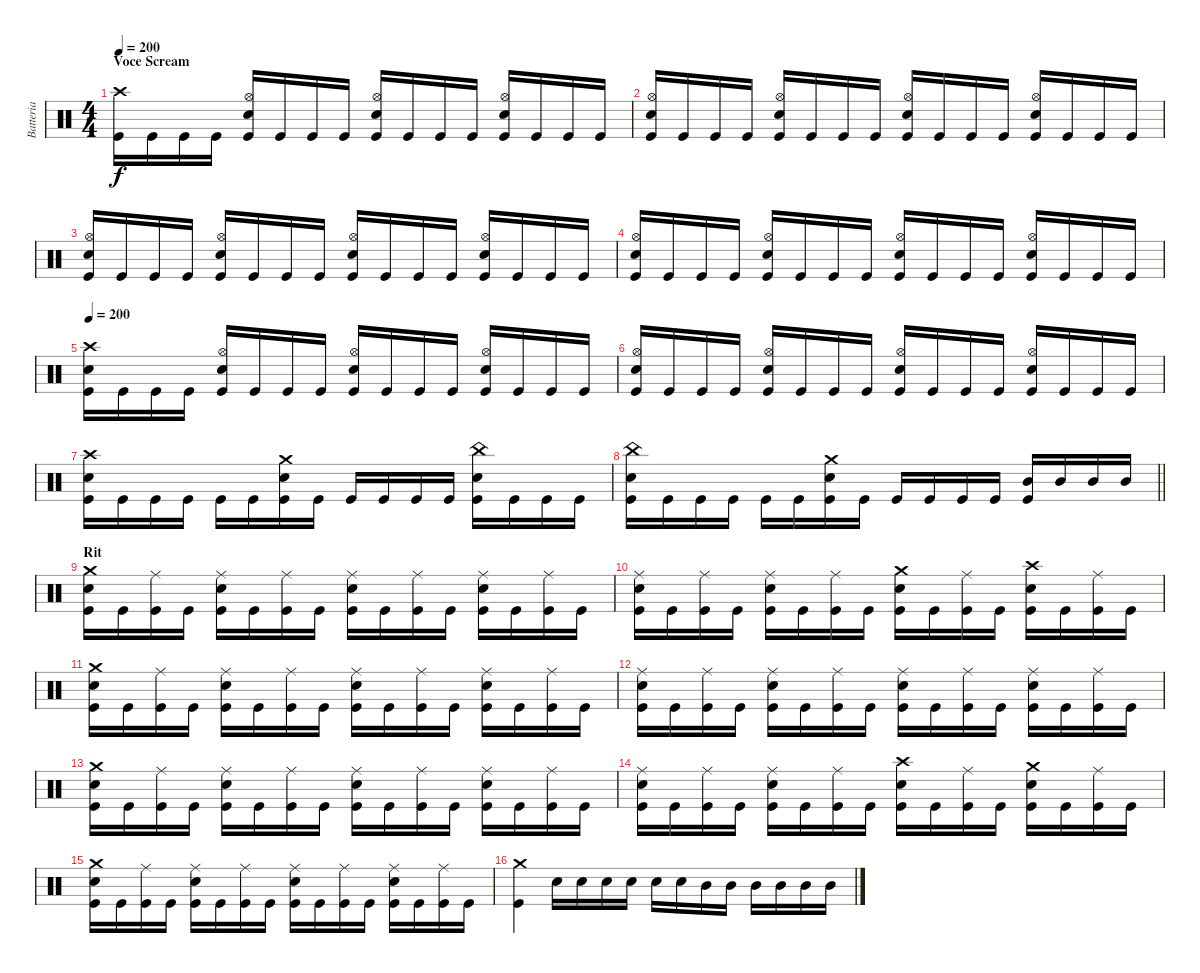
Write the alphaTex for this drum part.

\track ("Batteria" "Batteria") {instrument percussion}
\staff {score}
\articulation defaults
\ts (4 4)
\section ("" "Voce Scream")
\tempo 200
\clef neutral
\ks c
("Crash high (hit)" "Kick (hit)").16{dy f} "Kick (hit)".16 "Kick (hit)".16 "Kick (hit)".16 ("Hi-Hat (open)" "Electric Snare (hit)" "Kick (hit)").16 "Kick (hit)".16 "Kick (hit)".16 "Kick (hit)".16 ("Hi-Hat (open)" "Electric Snare (hit)" "Kick (hit)").16 "Kick (hit)".16 "Kick (hit)".16 "Kick (hit)".16 ("Hi-Hat (open)" "Electric Snare (hit)" "Kick (hit)").16 "Kick (hit)".16 "Kick (hit)".16 "Kick (hit)".16 |
("Hi-Hat (open)" "Electric Snare (hit)" "Kick (hit)").16 "Kick (hit)".16 "Kick (hit)".16 "Kick (hit)".16 ("Hi-Hat (open)" "Electric Snare (hit)" "Kick (hit)").16 "Kick (hit)".16 "Kick (hit)".16 "Kick (hit)".16 ("Hi-Hat (open)" "Electric Snare (hit)" "Kick (hit)").16 "Kick (hit)".16 "Kick (hit)".16 "Kick (hit)".16 ("Hi-Hat (open)" "Electric Snare (hit)" "Kick (hit)").16 "Kick (hit)".16 "Kick (hit)".16 "Kick (hit)".16 |
("Hi-Hat (open)" "Electric Snare (hit)" "Kick (hit)").16 "Kick (hit)".16 "Kick (hit)".16 "Kick (hit)".16 ("Hi-Hat (open)" "Electric Snare (hit)" "Kick (hit)").16 "Kick (hit)".16 "Kick (hit)".16 "Kick (hit)".16 ("Hi-Hat (open)" "Electric Snare (hit)" "Kick (hit)").16 "Kick (hit)".16 "Kick (hit)".16 "Kick (hit)".16 ("Hi-Hat (open)" "Electric Snare (hit)" "Kick (hit)").16 "Kick (hit)".16 "Kick (hit)".16 "Kick (hit)".16 |
("Hi-Hat (open)" "Electric Snare (hit)" "Kick (hit)").16 "Kick (hit)".16 "Kick (hit)".16 "Kick (hit)".16 ("Hi-Hat (open)" "Electric Snare (hit)" "Kick (hit)").16 "Kick (hit)".16 "Kick (hit)".16 "Kick (hit)".16 ("Hi-Hat (open)" "Electric Snare (hit)" "Kick (hit)").16 "Kick (hit)".16 "Kick (hit)".16 "Kick (hit)".16 ("Hi-Hat (open)" "Electric Snare (hit)" "Kick (hit)").16 "Kick (hit)".16 "Kick (hit)".16 "Kick (hit)".16 |
\tempo 200
("Crash high (hit)" "Electric Snare (hit)" "Kick (hit)").16 "Kick (hit)".16 "Kick (hit)".16 "Kick (hit)".16 ("Hi-Hat (open)" "Electric Snare (hit)" "Kick (hit)").16 "Kick (hit)".16 "Kick (hit)".16 "Kick (hit)".16 ("Hi-Hat (open)" "Electric Snare (hit)" "Kick (hit)").16 "Kick (hit)".16 "Kick (hit)".16 "Kick (hit)".16 ("Hi-Hat (open)" "Electric Snare (hit)" "Kick (hit)").16 "Kick (hit)".16 "Kick (hit)".16 "Kick (hit)".16 |
("Hi-Hat (open)" "Electric Snare (hit)" "Kick (hit)").16 "Kick (hit)".16 "Kick (hit)".16 "Kick (hit)".16 ("Hi-Hat (open)" "Electric Snare (hit)" "Kick (hit)").16 "Kick (hit)".16 "Kick (hit)".16 "Kick (hit)".16 ("Hi-Hat (open)" "Electric Snare (hit)" "Kick (hit)").16 "Kick (hit)".16 "Kick (hit)".16 "Kick (hit)".16 ("Hi-Hat (open)" "Electric Snare (hit)" "Kick (hit)").16 "Kick (hit)".16 "Kick (hit)".16 "Kick (hit)".16 |
("Crash high (hit)" "Electric Snare (hit)" "Kick (hit)").16 "Kick (hit)".16 "Kick (hit)".16 "Kick (hit)".16 "Kick (hit)".16 "Kick (hit)".16 ("Crash medium (hit)" "Electric Snare (hit)" "Kick (hit)").16 "Kick (hit)".16 "Kick (hit)".16 "Kick (hit)".16 "Kick (hit)".16 "Kick (hit)".16 ("China (hit)" "Electric Snare (hit)" "Kick (hit)").16 "Kick (hit)".16 "Kick (hit)".16 "Kick (hit)".16 |
\barLineRight lightlight
("China (hit)" "Electric Snare (hit)" "Kick (hit)").16 "Kick (hit)".16 "Kick (hit)".16 "Kick (hit)".16 "Kick (hit)".16 "Kick (hit)".16 ("Crash medium (hit)" "Electric Snare (hit)" "Kick (hit)").16 "Kick (hit)".16 "Kick (hit)".16 "Kick (hit)".16 "Kick (hit)".16 "Kick (hit)".16 ("Mid Tom (hit)" "Kick (hit)").16 "Mid Tom (hit)".16 "Mid Tom (hit)".16 "Mid Tom (hit)".16 |
\section ("" "Rit")
("Crash medium (hit)" "Electric Snare (hit)" "Kick (hit)").16 "Kick (hit)".16 ("Ride (middle)" "Kick (hit)").16 "Kick (hit)".16 ("Ride (middle)" "Electric Snare (hit)" "Kick (hit)").16 "Kick (hit)".16 ("Ride (middle)" "Kick (hit)").16 "Kick (hit)".16 ("Ride (middle)" "Electric Snare (hit)" "Kick (hit)").16 "Kick (hit)".16 ("Ride (middle)" "Kick (hit)").16 "Kick (hit)".16 ("Ride (middle)" "Electric Snare (hit)" "Kick (hit)").16 "Kick (hit)".16 ("Ride (middle)" "Kick (hit)").16 "Kick (hit)".16 |
("Ride (middle)" "Electric Snare (hit)" "Kick (hit)").16 "Kick (hit)".16 ("Ride (middle)" "Kick (hit)").16 "Kick (hit)".16 ("Ride (middle)" "Electric Snare (hit)" "Kick (hit)").16 "Kick (hit)".16 ("Ride (middle)" "Kick (hit)").16 "Kick (hit)".16 ("Crash medium (hit)" "Electric Snare (hit)" "Kick (hit)").16 "Kick (hit)".16 ("Ride (middle)" "Kick (hit)").16 "Kick (hit)".16 ("Crash high (hit)" "Electric Snare (hit)" "Kick (hit)").16 "Kick (hit)".16 ("Ride (middle)" "Kick (hit)").16 "Kick (hit)".16 |
("Crash medium (hit)" "Electric Snare (hit)" "Kick (hit)").16 "Kick (hit)".16 ("Ride (middle)" "Kick (hit)").16 "Kick (hit)".16 ("Ride (middle)" "Electric Snare (hit)" "Kick (hit)").16 "Kick (hit)".16 ("Ride (middle)" "Kick (hit)").16 "Kick (hit)".16 ("Ride (middle)" "Electric Snare (hit)" "Kick (hit)").16 "Kick (hit)".16 ("Ride (middle)" "Kick (hit)").16 "Kick (hit)".16 ("Ride (middle)" "Electric Snare (hit)" "Kick (hit)").16 "Kick (hit)".16 ("Ride (middle)" "Kick (hit)").16 "Kick (hit)".16 |
("Ride (middle)" "Electric Snare (hit)" "Kick (hit)").16 "Kick (hit)".16 ("Ride (middle)" "Kick (hit)").16 "Kick (hit)".16 ("Ride (middle)" "Electric Snare (hit)" "Kick (hit)").16 "Kick (hit)".16 ("Ride (middle)" "Kick (hit)").16 "Kick (hit)".16 ("Ride (middle)" "Electric Snare (hit)" "Kick (hit)").16 "Kick (hit)".16 ("Ride (middle)" "Kick (hit)").16 "Kick (hit)".16 ("Ride (middle)" "Electric Snare (hit)" "Kick (hit)").16 "Kick (hit)".16 ("Ride (middle)" "Kick (hit)").16 "Kick (hit)".16 |
("Crash medium (hit)" "Electric Snare (hit)" "Kick (hit)").16 "Kick (hit)".16 ("Ride (middle)" "Kick (hit)").16 "Kick (hit)".16 ("Ride (middle)" "Electric Snare (hit)" "Kick (hit)").16 "Kick (hit)".16 ("Ride (middle)" "Kick (hit)").16 "Kick (hit)".16 ("Ride (middle)" "Electric Snare (hit)" "Kick (hit)").16 "Kick (hit)".16 ("Ride (middle)" "Kick (hit)").16 "Kick (hit)".16 ("Ride (middle)" "Electric Snare (hit)" "Kick (hit)").16 "Kick (hit)".16 ("Ride (middle)" "Kick (hit)").16 "Kick (hit)".16 |
("Ride (middle)" "Electric Snare (hit)" "Kick (hit)").16 "Kick (hit)".16 ("Ride (middle)" "Kick (hit)").16 "Kick (hit)".16 ("Ride (middle)" "Electric Snare (hit)" "Kick (hit)").16 "Kick (hit)".16 ("Ride (middle)" "Kick (hit)").16 "Kick (hit)".16 ("Crash high (hit)" "Electric Snare (hit)" "Kick (hit)").16 "Kick (hit)".16 ("Ride (middle)" "Kick (hit)").16 "Kick (hit)".16 ("Crash medium (hit)" "Electric Snare (hit)" "Kick (hit)").16 "Kick (hit)".16 ("Ride (middle)" "Kick (hit)").16 "Kick (hit)".16 |
("Crash medium (hit)" "Electric Snare (hit)" "Kick (hit)").16 "Kick (hit)".16 ("Ride (middle)" "Kick (hit)").16 "Kick (hit)".16 ("Ride (middle)" "Electric Snare (hit)" "Kick (hit)").16 "Kick (hit)".16 ("Ride (middle)" "Kick (hit)").16 "Kick (hit)".16 ("Ride (middle)" "Electric Snare (hit)" "Kick (hit)").16 "Kick (hit)".16 ("Ride (middle)" "Kick (hit)").16 "Kick (hit)".16 ("Ride (middle)" "Electric Snare (hit)" "Kick (hit)").16 "Kick (hit)".16 ("Ride (middle)" "Kick (hit)").16 "Kick (hit)".16 |
("Crash medium (hit)" "Kick (hit)").4 "Electric Snare (hit)".16 "Electric Snare (hit)".16 "Electric Snare (hit)".16 "Electric Snare (hit)".16 "Electric Snare (hit)".16 "Electric Snare (hit)".16 "Mid Tom (hit)".16 "Mid Tom (hit)".16 "Mid Tom (hit)".16 "Mid Tom (hit)".16 "Mid Tom (hit)".16 "Mid Tom (hit)".16
